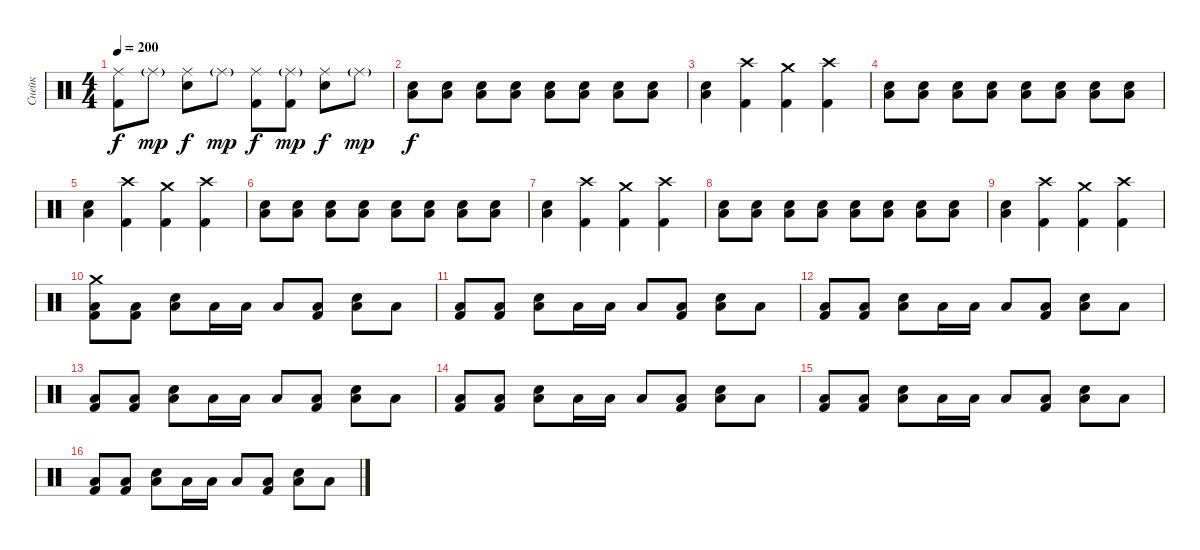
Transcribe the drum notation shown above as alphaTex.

\track ("Снейк" "Снейк") {instrument percussion}
\staff {score}
\articulation defaults
\ts (4 4)
\tempo 200
\clef neutral
\ks c
("Ride (middle)" "Kick (hit) 2").8{dy f} "Ride (middle)"{g}.8{dy mp} ("Ride (middle)" "Electric Snare (hit)").8{dy f} "Ride (middle)"{g}.8{dy mp} ("Ride (middle)" "Kick (hit) 2").8{dy f} ("Ride (middle)"{g} "Kick (hit) 2").8{dy mp} ("Ride (middle)" "Electric Snare (hit)").8{dy f} "Ride (middle)"{g}.8{dy mp} |
("Low Floor Tom (hit)" "Electric Snare (hit)").8{dy f} ("Low Floor Tom (hit)" "Electric Snare (hit)").8 ("Low Floor Tom (hit)" "Electric Snare (hit)").8 ("Low Floor Tom (hit)" "Electric Snare (hit)").8 ("Low Floor Tom (hit)" "Electric Snare (hit)").8 ("Low Floor Tom (hit)" "Electric Snare (hit)").8 ("Low Floor Tom (hit)" "Electric Snare (hit)").8 ("Low Floor Tom (hit)" "Electric Snare (hit)").8 |
("Low Floor Tom (hit)" "Electric Snare (hit)").4 ("Crash high (hit)" "Kick (hit) 2").4 ("Crash medium (hit)" "Kick (hit) 2").4 ("Crash high (hit)" "Kick (hit) 2").4 |
("Low Floor Tom (hit)" "Electric Snare (hit)").8 ("Low Floor Tom (hit)" "Electric Snare (hit)").8 ("Low Floor Tom (hit)" "Electric Snare (hit)").8 ("Low Floor Tom (hit)" "Electric Snare (hit)").8 ("Low Floor Tom (hit)" "Electric Snare (hit)").8 ("Low Floor Tom (hit)" "Electric Snare (hit)").8 ("Low Floor Tom (hit)" "Electric Snare (hit)").8 ("Low Floor Tom (hit)" "Electric Snare (hit)").8 |
("Low Floor Tom (hit)" "Electric Snare (hit)").4 ("Crash high (hit)" "Kick (hit) 2").4 ("Crash medium (hit)" "Kick (hit) 2").4 ("Crash high (hit)" "Kick (hit) 2").4 |
("Low Floor Tom (hit)" "Electric Snare (hit)").8 ("Low Floor Tom (hit)" "Electric Snare (hit)").8 ("Low Floor Tom (hit)" "Electric Snare (hit)").8 ("Low Floor Tom (hit)" "Electric Snare (hit)").8 ("Low Floor Tom (hit)" "Electric Snare (hit)").8 ("Low Floor Tom (hit)" "Electric Snare (hit)").8 ("Low Floor Tom (hit)" "Electric Snare (hit)").8 ("Low Floor Tom (hit)" "Electric Snare (hit)").8 |
("Low Floor Tom (hit)" "Electric Snare (hit)").4 ("Crash high (hit)" "Kick (hit) 2").4 ("Crash medium (hit)" "Kick (hit) 2").4 ("Crash high (hit)" "Kick (hit) 2").4 |
("Low Floor Tom (hit)" "Electric Snare (hit)").8 ("Low Floor Tom (hit)" "Electric Snare (hit)").8 ("Low Floor Tom (hit)" "Electric Snare (hit)").8 ("Low Floor Tom (hit)" "Electric Snare (hit)").8 ("Low Floor Tom (hit)" "Electric Snare (hit)").8 ("Low Floor Tom (hit)" "Electric Snare (hit)").8 ("Low Floor Tom (hit)" "Electric Snare (hit)").8 ("Low Floor Tom (hit)" "Electric Snare (hit)").8 |
("Low Floor Tom (hit)" "Electric Snare (hit)").4 ("Crash high (hit)" "Kick (hit) 2").4 ("Crash medium (hit)" "Kick (hit) 2").4 ("Crash high (hit)" "Kick (hit) 2").4 |
("Low Floor Tom (hit)" "Kick (hit) 2" "Crash medium (hit)").8 ("Low Floor Tom (hit)" "Kick (hit) 2").8 ("Electric Snare (hit)" "Low Floor Tom (hit)").8 "Low Tom (hit)".16 "Low Floor Tom (hit)".16 "Low Floor Tom (hit)".8 ("Low Floor Tom (hit)" "Kick (hit) 2").8 ("Low Floor Tom (hit)" "Electric Snare (hit)").8 "Low Floor Tom (hit)".8 |
("Low Floor Tom (hit)" "Kick (hit) 2").8 ("Low Floor Tom (hit)" "Kick (hit) 2").8 ("Electric Snare (hit)" "Low Floor Tom (hit)").8 "Low Tom (hit)".16 "Low Floor Tom (hit)".16 "Low Floor Tom (hit)".8 ("Low Floor Tom (hit)" "Kick (hit) 2").8 ("Low Floor Tom (hit)" "Electric Snare (hit)").8 "Low Floor Tom (hit)".8 |
("Low Floor Tom (hit)" "Kick (hit) 2").8 ("Low Floor Tom (hit)" "Kick (hit) 2").8 ("Electric Snare (hit)" "Low Floor Tom (hit)").8 "Low Tom (hit)".16 "Low Floor Tom (hit)".16 "Low Floor Tom (hit)".8 ("Low Floor Tom (hit)" "Kick (hit) 2").8 ("Low Floor Tom (hit)" "Electric Snare (hit)").8 "Low Floor Tom (hit)".8 |
("Low Floor Tom (hit)" "Kick (hit) 2").8 ("Low Floor Tom (hit)" "Kick (hit) 2").8 ("Electric Snare (hit)" "Low Floor Tom (hit)").8 "Low Tom (hit)".16 "Low Floor Tom (hit)".16 "Low Floor Tom (hit)".8 ("Low Floor Tom (hit)" "Kick (hit) 2").8 ("Low Floor Tom (hit)" "Electric Snare (hit)").8 "Low Floor Tom (hit)".8 |
("Low Floor Tom (hit)" "Kick (hit) 2").8 ("Low Floor Tom (hit)" "Kick (hit) 2").8 ("Electric Snare (hit)" "Low Floor Tom (hit)").8 "Low Tom (hit)".16 "Low Floor Tom (hit)".16 "Low Floor Tom (hit)".8 ("Low Floor Tom (hit)" "Kick (hit) 2").8 ("Low Floor Tom (hit)" "Electric Snare (hit)").8 "Low Floor Tom (hit)".8 |
("Low Floor Tom (hit)" "Kick (hit) 2").8 ("Low Floor Tom (hit)" "Kick (hit) 2").8 ("Electric Snare (hit)" "Low Floor Tom (hit)").8 "Low Tom (hit)".16 "Low Floor Tom (hit)".16 "Low Floor Tom (hit)".8 ("Low Floor Tom (hit)" "Kick (hit) 2").8 ("Low Floor Tom (hit)" "Electric Snare (hit)").8 "Low Floor Tom (hit)".8 |
("Low Floor Tom (hit)" "Kick (hit) 2").8 ("Low Floor Tom (hit)" "Kick (hit) 2").8 ("Electric Snare (hit)" "Low Floor Tom (hit)").8 "Low Tom (hit)".16 "Low Floor Tom (hit)".16 "Low Floor Tom (hit)".8 ("Low Floor Tom (hit)" "Kick (hit) 2").8 ("Low Floor Tom (hit)" "Electric Snare (hit)").8 "Low Floor Tom (hit)".8
